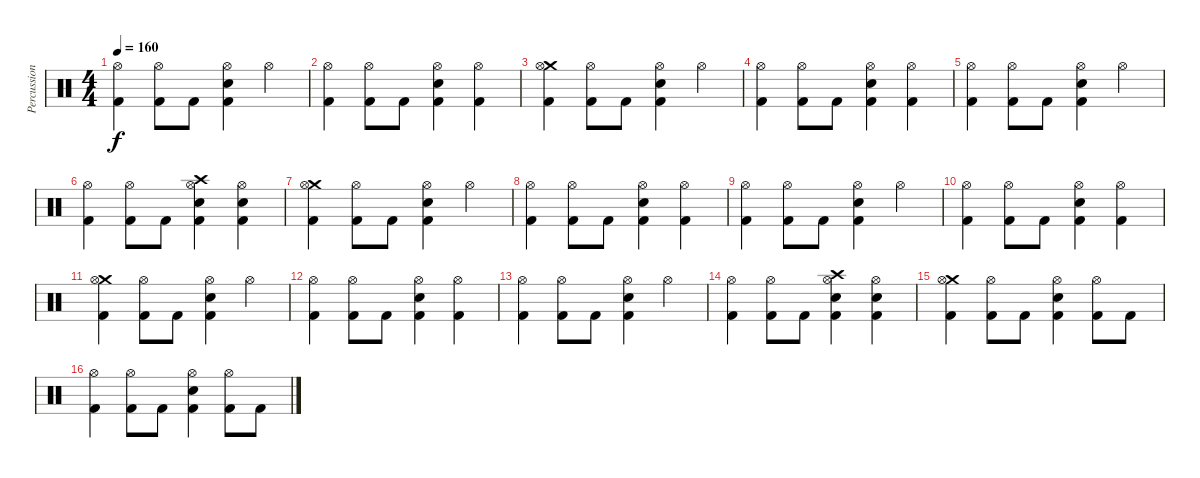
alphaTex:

\track ("Percussion" "Percussion") {instrument percussion}
\staff {score}
\articulation defaults
\ts (4 4)
\tempo 160
\clef neutral
\ks c
("Hi-Hat (open)" "Kick (hit) 2").4{dy f} ("Hi-Hat (open)" "Kick (hit) 2").8 "Kick (hit) 2".8 ("Hi-Hat (open)" "Electric Snare (hit)" "Kick (hit) 2").4 "Hi-Hat (open)".4 |
("Hi-Hat (open)" "Kick (hit) 2").4 ("Hi-Hat (open)" "Kick (hit) 2").8 "Kick (hit) 2".8 ("Hi-Hat (open)" "Electric Snare (hit)" "Kick (hit) 2").4 ("Hi-Hat (open)" "Kick (hit) 2").4 |
("Crash medium (hit)" "Hi-Hat (open)" "Kick (hit) 2").4 ("Hi-Hat (open)" "Kick (hit) 2").8 "Kick (hit) 2".8 ("Hi-Hat (open)" "Electric Snare (hit)" "Kick (hit) 2").4 "Hi-Hat (open)".4 |
("Hi-Hat (open)" "Kick (hit) 2").4 ("Hi-Hat (open)" "Kick (hit) 2").8 "Kick (hit) 2".8 ("Hi-Hat (open)" "Electric Snare (hit)" "Kick (hit) 2").4 ("Hi-Hat (open)" "Kick (hit) 2").4 |
("Hi-Hat (open)" "Kick (hit) 2").4 ("Hi-Hat (open)" "Kick (hit) 2").8 "Kick (hit) 2".8 ("Hi-Hat (open)" "Electric Snare (hit)" "Kick (hit) 2").4 "Hi-Hat (open)".4 |
("Hi-Hat (open)" "Kick (hit) 2").4 ("Hi-Hat (open)" "Kick (hit) 2").8 "Kick (hit) 2".8 ("Crash high (hit)" "Hi-Hat (open)" "Electric Snare (hit)" "Kick (hit) 2").4 ("Hi-Hat (open)" "Electric Snare (hit)" "Kick (hit) 2").4 |
("Crash medium (hit)" "Hi-Hat (open)" "Kick (hit) 2").4 ("Hi-Hat (open)" "Kick (hit) 2").8 "Kick (hit) 2".8 ("Hi-Hat (open)" "Electric Snare (hit)" "Kick (hit) 2").4 "Hi-Hat (open)".4 |
("Hi-Hat (open)" "Kick (hit) 2").4 ("Hi-Hat (open)" "Kick (hit) 2").8 "Kick (hit) 2".8 ("Hi-Hat (open)" "Electric Snare (hit)" "Kick (hit) 2").4 ("Hi-Hat (open)" "Kick (hit) 2").4 |
("Hi-Hat (open)" "Kick (hit) 2").4 ("Hi-Hat (open)" "Kick (hit) 2").8 "Kick (hit) 2".8 ("Hi-Hat (open)" "Electric Snare (hit)" "Kick (hit) 2").4 "Hi-Hat (open)".4 |
("Hi-Hat (open)" "Kick (hit) 2").4 ("Hi-Hat (open)" "Kick (hit) 2").8 "Kick (hit) 2".8 ("Hi-Hat (open)" "Electric Snare (hit)" "Kick (hit) 2").4 ("Hi-Hat (open)" "Kick (hit) 2").4 |
("Crash medium (hit)" "Hi-Hat (open)" "Kick (hit) 2").4 ("Hi-Hat (open)" "Kick (hit) 2").8 "Kick (hit) 2".8 ("Hi-Hat (open)" "Electric Snare (hit)" "Kick (hit) 2").4 "Hi-Hat (open)".4 |
("Hi-Hat (open)" "Kick (hit) 2").4 ("Hi-Hat (open)" "Kick (hit) 2").8 "Kick (hit) 2".8 ("Hi-Hat (open)" "Electric Snare (hit)" "Kick (hit) 2").4 ("Hi-Hat (open)" "Kick (hit) 2").4 |
("Hi-Hat (open)" "Kick (hit) 2").4 ("Hi-Hat (open)" "Kick (hit) 2").8 "Kick (hit) 2".8 ("Hi-Hat (open)" "Electric Snare (hit)" "Kick (hit) 2").4 "Hi-Hat (open)".4 |
("Hi-Hat (open)" "Kick (hit) 2").4 ("Hi-Hat (open)" "Kick (hit) 2").8 "Kick (hit) 2".8 ("Crash high (hit)" "Hi-Hat (open)" "Electric Snare (hit)" "Kick (hit) 2").4 ("Hi-Hat (open)" "Electric Snare (hit)" "Kick (hit) 2").4 |
("Crash medium (hit)" "Hi-Hat (open)" "Kick (hit) 2").4 ("Hi-Hat (open)" "Kick (hit) 2").8 "Kick (hit) 2".8 ("Hi-Hat (open)" "Electric Snare (hit)" "Kick (hit) 2").4 ("Hi-Hat (open)" "Kick (hit) 2").8 "Kick (hit) 2".8 |
("Hi-Hat (open)" "Kick (hit) 2").4 ("Hi-Hat (open)" "Kick (hit) 2").8 "Kick (hit) 2".8 ("Hi-Hat (open)" "Electric Snare (hit)" "Kick (hit) 2").4 ("Hi-Hat (open)" "Kick (hit) 2").8 "Kick (hit) 2".8
